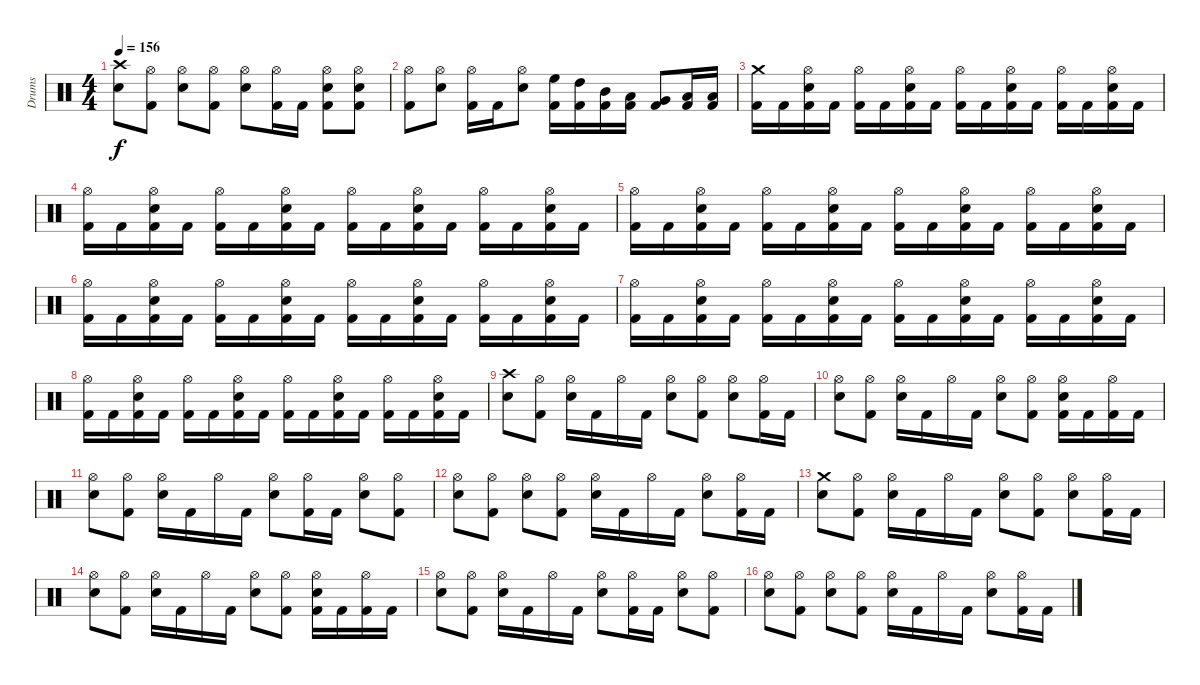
\track ("Drums" "Drums") {instrument percussion}
\staff {score}
\articulation defaults
\ts (4 4)
\tempo 156
\clef neutral
\ks c
("Snare (hit) 2" "Crash high (hit)").8{dy f} ("Kick (hit) 2" "Hi-Hat (open)").8 ("Snare (hit) 2" "Hi-Hat (open)").8 ("Kick (hit) 2" "Hi-Hat (open)").8 ("Snare (hit) 2" "Hi-Hat (open)").8 ("Kick (hit) 2" "Hi-Hat (open)").16 "Kick (hit) 2".16 ("Kick (hit) 2" "Snare (hit) 2" "Hi-Hat (open)").8 ("Kick (hit) 2" "Snare (hit) 2" "Hi-Hat (open)").8 |
("Kick (hit) 2" "Hi-Hat (open)").8 ("Snare (hit) 2" "Hi-Hat (open)").8 ("Kick (hit) 2" "Hi-Hat (open)").16 "Kick (hit) 2".16 ("Snare (hit) 2" "Hi-Hat (open)").8 ("Kick (hit) 2" "High Floor Tom (hit)").16 ("Kick (hit) 2" "High Tom (hit)").16 ("Kick (hit) 2" "Mid Tom (hit)").16 ("Kick (hit) 2" "Low Tom (hit)").16 ("Kick (hit) 2" "Very Low Tom (hit)").8 ("Kick (hit) 2" "Low Floor Tom (hit)").16 ("Kick (hit) 2" "Low Floor Tom (hit)").16 |
\section ("" "")
("Kick (hit) 2" "Crash medium (hit)").16 "Kick (hit) 2".16 ("Kick (hit) 2" "Snare (hit) 2" "Hi-Hat (open)").16 "Kick (hit) 2".16 ("Kick (hit) 2" "Hi-Hat (open)").16 "Kick (hit) 2".16 ("Kick (hit) 2" "Snare (hit) 2" "Hi-Hat (open)").16 "Kick (hit) 2".16 ("Kick (hit) 2" "Hi-Hat (open)").16 "Kick (hit) 2".16 ("Kick (hit) 2" "Snare (hit) 2" "Hi-Hat (open)").16 "Kick (hit) 2".16 ("Kick (hit) 2" "Hi-Hat (open)").16 "Kick (hit) 2".16 ("Kick (hit) 2" "Snare (hit) 2" "Hi-Hat (open)").16 "Kick (hit) 2".16 |
("Kick (hit) 2" "Hi-Hat (open)").16 "Kick (hit) 2".16 ("Kick (hit) 2" "Snare (hit) 2" "Hi-Hat (open)").16 "Kick (hit) 2".16 ("Kick (hit) 2" "Hi-Hat (open)").16 "Kick (hit) 2".16 ("Kick (hit) 2" "Snare (hit) 2" "Hi-Hat (open)").16 "Kick (hit) 2".16 ("Kick (hit) 2" "Hi-Hat (open)").16 "Kick (hit) 2".16 ("Kick (hit) 2" "Snare (hit) 2" "Hi-Hat (open)").16 "Kick (hit) 2".16 ("Kick (hit) 2" "Hi-Hat (open)").16 "Kick (hit) 2".16 ("Kick (hit) 2" "Snare (hit) 2" "Hi-Hat (open)").16 "Kick (hit) 2".16 |
("Kick (hit) 2" "Hi-Hat (open)").16 "Kick (hit) 2".16 ("Kick (hit) 2" "Snare (hit) 2" "Hi-Hat (open)").16 "Kick (hit) 2".16 ("Kick (hit) 2" "Hi-Hat (open)").16 "Kick (hit) 2".16 ("Kick (hit) 2" "Snare (hit) 2" "Hi-Hat (open)").16 "Kick (hit) 2".16 ("Kick (hit) 2" "Hi-Hat (open)").16 "Kick (hit) 2".16 ("Kick (hit) 2" "Snare (hit) 2" "Hi-Hat (open)").16 "Kick (hit) 2".16 ("Kick (hit) 2" "Hi-Hat (open)").16 "Kick (hit) 2".16 ("Kick (hit) 2" "Snare (hit) 2" "Hi-Hat (open)").16 "Kick (hit) 2".16 |
("Kick (hit) 2" "Hi-Hat (open)").16 "Kick (hit) 2".16 ("Kick (hit) 2" "Snare (hit) 2" "Hi-Hat (open)").16 "Kick (hit) 2".16 ("Kick (hit) 2" "Hi-Hat (open)").16 "Kick (hit) 2".16 ("Kick (hit) 2" "Snare (hit) 2" "Hi-Hat (open)").16 "Kick (hit) 2".16 ("Kick (hit) 2" "Hi-Hat (open)").16 "Kick (hit) 2".16 ("Kick (hit) 2" "Snare (hit) 2" "Hi-Hat (open)").16 "Kick (hit) 2".16 ("Kick (hit) 2" "Hi-Hat (open)").16 "Kick (hit) 2".16 ("Kick (hit) 2" "Snare (hit) 2" "Hi-Hat (open)").16 "Kick (hit) 2".16 |
("Kick (hit) 2" "Hi-Hat (open)").16 "Kick (hit) 2".16 ("Kick (hit) 2" "Snare (hit) 2" "Hi-Hat (open)").16 "Kick (hit) 2".16 ("Kick (hit) 2" "Hi-Hat (open)").16 "Kick (hit) 2".16 ("Kick (hit) 2" "Snare (hit) 2" "Hi-Hat (open)").16 "Kick (hit) 2".16 ("Kick (hit) 2" "Hi-Hat (open)").16 "Kick (hit) 2".16 ("Kick (hit) 2" "Snare (hit) 2" "Hi-Hat (open)").16 "Kick (hit) 2".16 ("Kick (hit) 2" "Hi-Hat (open)").16 "Kick (hit) 2".16 ("Kick (hit) 2" "Snare (hit) 2" "Hi-Hat (open)").16 "Kick (hit) 2".16 |
("Kick (hit) 2" "Hi-Hat (open)").16 "Kick (hit) 2".16 ("Kick (hit) 2" "Snare (hit) 2" "Hi-Hat (open)").16 "Kick (hit) 2".16 ("Kick (hit) 2" "Hi-Hat (open)").16 "Kick (hit) 2".16 ("Kick (hit) 2" "Snare (hit) 2" "Hi-Hat (open)").16 "Kick (hit) 2".16 ("Kick (hit) 2" "Hi-Hat (open)").16 "Kick (hit) 2".16 ("Kick (hit) 2" "Snare (hit) 2" "Hi-Hat (open)").16 "Kick (hit) 2".16 ("Kick (hit) 2" "Hi-Hat (open)").16 "Kick (hit) 2".16 ("Kick (hit) 2" "Snare (hit) 2" "Hi-Hat (open)").16 "Kick (hit) 2".16 |
\section ("" "")
("Snare (hit) 2" "Crash high (hit)").8 ("Kick (hit) 2" "Hi-Hat (open)").8 ("Snare (hit) 2" "Hi-Hat (open)").16 "Kick (hit) 2".16 "Hi-Hat (open)".16 "Kick (hit) 2".16 ("Snare (hit) 2" "Hi-Hat (open)").8 ("Kick (hit) 2" "Hi-Hat (open)").8 ("Snare (hit) 2" "Hi-Hat (open)").8 ("Kick (hit) 2" "Hi-Hat (open)").16 "Kick (hit) 2".16 |
("Snare (hit) 2" "Hi-Hat (open)").8 ("Kick (hit) 2" "Hi-Hat (open)").8 ("Snare (hit) 2" "Hi-Hat (open)").16 "Kick (hit) 2".16 "Hi-Hat (open)".16 "Kick (hit) 2".16 ("Snare (hit) 2" "Hi-Hat (open)").8 ("Kick (hit) 2" "Hi-Hat (open)").8 ("Kick (hit) 2" "Snare (hit) 2" "Hi-Hat (open)").16 "Kick (hit) 2".16 ("Kick (hit) 2" "Hi-Hat (open)").16 "Kick (hit) 2".16 |
("Snare (hit) 2" "Hi-Hat (open)").8 ("Kick (hit) 2" "Hi-Hat (open)").8 ("Snare (hit) 2" "Hi-Hat (open)").16 "Kick (hit) 2".16 "Hi-Hat (open)".16 "Kick (hit) 2".16 ("Snare (hit) 2" "Hi-Hat (open)").8 ("Kick (hit) 2" "Hi-Hat (open)").16 "Kick (hit) 2".16 ("Snare (hit) 2" "Hi-Hat (open)").8 ("Kick (hit) 2" "Hi-Hat (open)").8 |
("Snare (hit) 2" "Hi-Hat (open)").8 ("Kick (hit) 2" "Hi-Hat (open)").8 ("Snare (hit) 2" "Hi-Hat (open)").8 ("Kick (hit) 2" "Hi-Hat (open)").8 ("Snare (hit) 2" "Hi-Hat (open)").16 "Kick (hit) 2".16 "Hi-Hat (open)".16 "Kick (hit) 2".16 ("Snare (hit) 2" "Hi-Hat (open)").8 ("Kick (hit) 2" "Hi-Hat (open)").16 "Kick (hit) 2".16 |
("Snare (hit) 2" "Crash medium (hit)").8 ("Kick (hit) 2" "Hi-Hat (open)").8 ("Snare (hit) 2" "Hi-Hat (open)").16 "Kick (hit) 2".16 "Hi-Hat (open)".16 "Kick (hit) 2".16 ("Snare (hit) 2" "Hi-Hat (open)").8 ("Kick (hit) 2" "Hi-Hat (open)").8 ("Snare (hit) 2" "Hi-Hat (open)").8 ("Kick (hit) 2" "Hi-Hat (open)").16 "Kick (hit) 2".16 |
("Snare (hit) 2" "Hi-Hat (open)").8 ("Kick (hit) 2" "Hi-Hat (open)").8 ("Snare (hit) 2" "Hi-Hat (open)").16 "Kick (hit) 2".16 "Hi-Hat (open)".16 "Kick (hit) 2".16 ("Snare (hit) 2" "Hi-Hat (open)").8 ("Kick (hit) 2" "Hi-Hat (open)").8 ("Kick (hit) 2" "Snare (hit) 2" "Hi-Hat (open)").16 "Kick (hit) 2".16 ("Kick (hit) 2" "Hi-Hat (open)").16 "Kick (hit) 2".16 |
("Snare (hit) 2" "Hi-Hat (open)").8 ("Kick (hit) 2" "Hi-Hat (open)").8 ("Snare (hit) 2" "Hi-Hat (open)").16 "Kick (hit) 2".16 "Hi-Hat (open)".16 "Kick (hit) 2".16 ("Snare (hit) 2" "Hi-Hat (open)").8 ("Kick (hit) 2" "Hi-Hat (open)").16 "Kick (hit) 2".16 ("Snare (hit) 2" "Hi-Hat (open)").8 ("Kick (hit) 2" "Hi-Hat (open)").8 |
("Snare (hit) 2" "Hi-Hat (open)").8 ("Kick (hit) 2" "Hi-Hat (open)").8 ("Snare (hit) 2" "Hi-Hat (open)").8 ("Kick (hit) 2" "Hi-Hat (open)").8 ("Snare (hit) 2" "Hi-Hat (open)").16 "Kick (hit) 2".16 "Hi-Hat (open)".16 "Kick (hit) 2".16 ("Snare (hit) 2" "Hi-Hat (open)").8 ("Kick (hit) 2" "Hi-Hat (open)").16 "Kick (hit) 2".16
